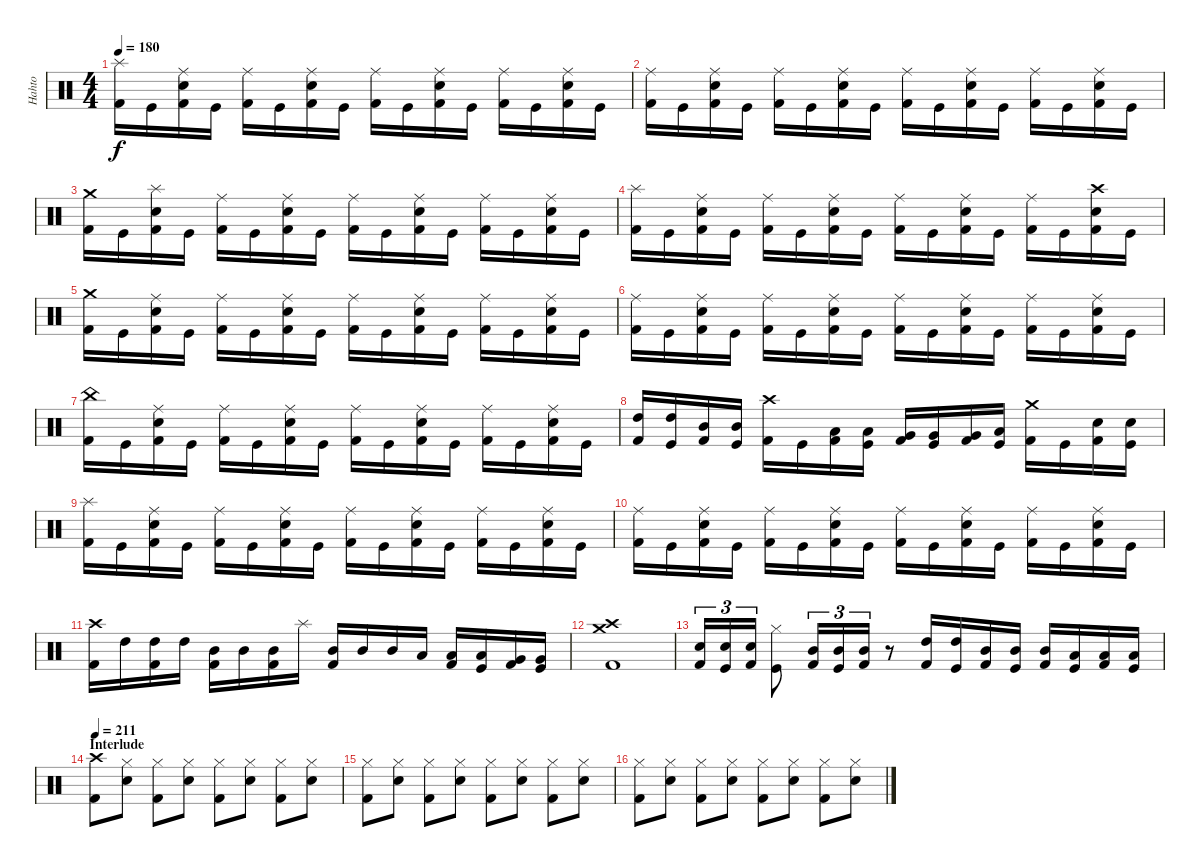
\track ("Hahto" "Hahto") {instrument percussion}
\staff {score}
\articulation defaults
\ts (4 4)
\tempo 180
\clef neutral
\ks c
("Splash (hit)" "Kick (hit) 2").16{dy f} "Kick (hit)".16 ("Ride (middle)" "Snare (hit) 2" "Kick (hit) 2").16 "Kick (hit)".16 ("Ride (middle)" "Kick (hit) 2").16 "Kick (hit)".16 ("Ride (middle)" "Snare (hit) 2" "Kick (hit) 2").16 "Kick (hit)".16 ("Ride (middle)" "Kick (hit) 2").16 "Kick (hit)".16 ("Ride (middle)" "Snare (hit) 2" "Kick (hit) 2").16 "Kick (hit)".16 ("Ride (middle)" "Kick (hit) 2").16 "Kick (hit)".16 ("Ride (middle)" "Snare (hit) 2" "Kick (hit) 2").16 "Kick (hit)".16 |
("Ride (middle)" "Kick (hit) 2").16 "Kick (hit)".16 ("Ride (middle)" "Snare (hit) 2" "Kick (hit) 2").16 "Kick (hit)".16 ("Ride (middle)" "Kick (hit) 2").16 "Kick (hit)".16 ("Ride (middle)" "Snare (hit) 2" "Kick (hit) 2").16 "Kick (hit)".16 ("Ride (middle)" "Kick (hit) 2").16 "Kick (hit)".16 ("Ride (middle)" "Snare (hit) 2" "Kick (hit) 2").16 "Kick (hit)".16 ("Ride (middle)" "Kick (hit) 2").16 "Kick (hit)".16 ("Ride (middle)" "Snare (hit) 2" "Kick (hit) 2").16 "Kick (hit)".16 |
("Crash medium (hit)" "Kick (hit) 2").16 "Kick (hit)".16 ("Splash (hit)" "Snare (hit) 2" "Kick (hit) 2").16 "Kick (hit)".16 ("Ride (middle)" "Kick (hit) 2").16 "Kick (hit)".16 ("Ride (middle)" "Snare (hit) 2" "Kick (hit) 2").16 "Kick (hit)".16 ("Ride (middle)" "Kick (hit) 2").16 "Kick (hit)".16 ("Ride (middle)" "Snare (hit) 2" "Kick (hit) 2").16 "Kick (hit)".16 ("Ride (middle)" "Kick (hit) 2").16 "Kick (hit)".16 ("Ride (middle)" "Snare (hit) 2" "Kick (hit) 2").16 "Kick (hit)".16 |
("Splash (hit)" "Kick (hit) 2").16 "Kick (hit)".16 ("Ride (middle)" "Snare (hit) 2" "Kick (hit) 2").16 "Kick (hit)".16 ("Ride (middle)" "Kick (hit) 2").16 "Kick (hit)".16 ("Ride (middle)" "Snare (hit) 2" "Kick (hit) 2").16 "Kick (hit)".16 ("Ride (middle)" "Kick (hit) 2").16 "Kick (hit)".16 ("Ride (middle)" "Snare (hit) 2" "Kick (hit) 2").16 "Kick (hit)".16 ("Ride (middle)" "Kick (hit) 2").16 "Kick (hit)".16 ("Crash high (hit)" "Snare (hit) 2" "Kick (hit) 2").16 "Kick (hit)".16 |
("Crash medium (hit)" "Kick (hit) 2").16 "Kick (hit)".16 ("Ride (middle)" "Snare (hit) 2" "Kick (hit) 2").16 "Kick (hit)".16 ("Ride (middle)" "Kick (hit) 2").16 "Kick (hit)".16 ("Ride (middle)" "Snare (hit) 2" "Kick (hit) 2").16 "Kick (hit)".16 ("Ride (middle)" "Kick (hit) 2").16 "Kick (hit)".16 ("Ride (middle)" "Snare (hit) 2" "Kick (hit) 2").16 "Kick (hit)".16 ("Ride (middle)" "Kick (hit) 2").16 "Kick (hit)".16 ("Ride (middle)" "Snare (hit) 2" "Kick (hit) 2").16 "Kick (hit)".16 |
("Ride (middle)" "Kick (hit) 2").16 "Kick (hit)".16 ("Ride (middle)" "Snare (hit) 2" "Kick (hit) 2").16 "Kick (hit)".16 ("Ride (middle)" "Kick (hit) 2").16 "Kick (hit)".16 ("Ride (middle)" "Snare (hit) 2" "Kick (hit) 2").16 "Kick (hit)".16 ("Ride (middle)" "Kick (hit) 2").16 "Kick (hit)".16 ("Ride (middle)" "Snare (hit) 2" "Kick (hit) 2").16 "Kick (hit)".16 ("Ride (middle)" "Kick (hit) 2").16 "Kick (hit)".16 ("Ride (middle)" "Snare (hit) 2" "Kick (hit) 2").16 "Kick (hit)".16 |
("China (hit)" "Kick (hit) 2").16 "Kick (hit)".16 ("Ride (middle)" "Snare (hit) 2" "Kick (hit) 2").16 "Kick (hit)".16 ("Ride (middle)" "Kick (hit) 2").16 "Kick (hit)".16 ("Ride (middle)" "Snare (hit) 2" "Kick (hit) 2").16 "Kick (hit)".16 ("Ride (middle)" "Kick (hit) 2").16 "Kick (hit)".16 ("Ride (middle)" "Snare (hit) 2" "Kick (hit) 2").16 "Kick (hit)".16 ("Ride (middle)" "Kick (hit) 2").16 "Kick (hit)".16 ("Ride (middle)" "Snare (hit) 2" "Kick (hit) 2").16 "Kick (hit)".16 |
("High Tom (hit)" "Kick (hit) 2").16 ("High Tom (hit)" "Kick (hit)").16 ("Mid Tom (hit)" "Kick (hit) 2").16 ("Mid Tom (hit)" "Kick (hit)").16 ("Crash high (hit)" "Kick (hit) 2").16 "Kick (hit)".16 ("Low Tom (hit)" "Kick (hit) 2").16 ("Low Tom (hit)" "Kick (hit)").16 ("Very Low Tom (hit)" "Kick (hit) 2").16 ("Very Low Tom (hit)" "Kick (hit)").16 ("Very Low Tom (hit)" "Kick (hit) 2").16 ("Low Floor Tom (hit)" "Kick (hit)").16 ("Crash medium (hit)" "Kick (hit) 2").16 "Kick (hit)".16 ("Snare (hit) 2" "Kick (hit) 2").16 ("Snare (hit) 2" "Kick (hit)").16 |
("Splash (hit)" "Kick (hit) 2").16 "Kick (hit)".16 ("Ride (middle)" "Snare (hit) 2" "Kick (hit) 2").16 "Kick (hit)".16 ("Ride (middle)" "Kick (hit) 2").16 "Kick (hit)".16 ("Ride (middle)" "Snare (hit) 2" "Kick (hit) 2").16 "Kick (hit)".16 ("Ride (middle)" "Kick (hit) 2").16 "Kick (hit)".16 ("Ride (middle)" "Snare (hit) 2" "Kick (hit) 2").16 "Kick (hit)".16 ("Ride (middle)" "Kick (hit) 2").16 "Kick (hit)".16 ("Ride (middle)" "Snare (hit) 2" "Kick (hit) 2").16 "Kick (hit)".16 |
("Ride (middle)" "Kick (hit) 2").16 "Kick (hit)".16 ("Ride (middle)" "Snare (hit) 2" "Kick (hit) 2").16 "Kick (hit)".16 ("Ride (middle)" "Kick (hit) 2").16 "Kick (hit)".16 ("Ride (middle)" "Snare (hit) 2" "Kick (hit) 2").16 "Kick (hit)".16 ("Ride (middle)" "Kick (hit) 2").16 "Kick (hit)".16 ("Ride (middle)" "Snare (hit) 2" "Kick (hit) 2").16 "Kick (hit)".16 ("Ride (middle)" "Kick (hit) 2").16 "Kick (hit)".16 ("Ride (middle)" "Snare (hit) 2" "Kick (hit) 2").16 "Kick (hit)".16 |
("Crash high (hit)" "Kick (hit) 2").16 "High Tom (hit)".16 ("High Tom (hit)" "Kick (hit) 2").16 "High Tom (hit)".16 ("Mid Tom (hit)" "Kick (hit) 2").16 "Mid Tom (hit)".16 ("Mid Tom (hit)" "Kick (hit) 2").16 "Splash (hit)".16 ("Mid Tom (hit)" "Kick (hit) 2").16 "Mid Tom (hit)".16 "Mid Tom (hit)".16 "Low Tom (hit)".16 ("Low Tom (hit)" "Kick (hit) 2").16 ("Low Tom (hit)" "Kick (hit)").16 ("Very Low Tom (hit)" "Kick (hit) 2").16 ("Very Low Tom (hit)" "Kick (hit)").16 |
("Crash medium (hit)" "Crash high (hit)" "Kick (hit) 2").1 |
("Snare (hit) 2" "Kick (hit) 2").16{tu (3 2)} ("Snare (hit) 2" "Kick (hit)").16{tu (3 2)} ("Snare (hit) 2" "Kick (hit) 2").16{tu (3 2)} ("Hi-Hat (closed)" "Kick (hit)").8 ("Mid Tom (hit)" "Kick (hit) 2").16{tu (3 2)} ("Mid Tom (hit)" "Kick (hit)").16{tu (3 2)} ("Mid Tom (hit)" "Kick (hit) 2").16{tu (3 2)} r.8 ("High Tom (hit)" "Kick (hit) 2").16 ("High Tom (hit)" "Kick (hit)").16 ("Mid Tom (hit)" "Kick (hit) 2").16 ("Mid Tom (hit)" "Kick (hit)").16 ("Mid Tom (hit)" "Kick (hit) 2").16 ("Low Tom (hit)" "Kick (hit)").16 ("Low Tom (hit)" "Kick (hit) 2").16 ("Low Tom (hit)" "Kick (hit)").16 |
\section ("" "Interlude")
\tempo 211
("Crash high (hit)" "Kick (hit) 2").8 ("Hi-Hat (closed)" "Snare (hit) 2").8 ("Hi-Hat (closed)" "Kick (hit) 2").8 ("Hi-Hat (closed)" "Snare (hit) 2").8 ("Hi-Hat (closed)" "Kick (hit) 2").8 ("Hi-Hat (closed)" "Snare (hit) 2").8 ("Hi-Hat (closed)" "Kick (hit) 2").8 ("Hi-Hat (closed)" "Snare (hit) 2").8 |
("Hi-Hat (closed)" "Kick (hit) 2").8 ("Hi-Hat (closed)" "Snare (hit) 2").8 ("Hi-Hat (closed)" "Kick (hit) 2").8 ("Hi-Hat (closed)" "Snare (hit) 2").8 ("Hi-Hat (closed)" "Kick (hit) 2").8 ("Hi-Hat (closed)" "Snare (hit) 2").8 ("Hi-Hat (closed)" "Kick (hit) 2").8 ("Hi-Hat (closed)" "Snare (hit) 2").8 |
("Hi-Hat (closed)" "Kick (hit) 2").8 ("Hi-Hat (closed)" "Snare (hit) 2").8 ("Hi-Hat (closed)" "Kick (hit) 2").8 ("Hi-Hat (closed)" "Snare (hit) 2").8 ("Hi-Hat (closed)" "Kick (hit) 2").8 ("Hi-Hat (closed)" "Snare (hit) 2").8 ("Hi-Hat (closed)" "Kick (hit) 2").8 ("Hi-Hat (closed)" "Snare (hit) 2").8
